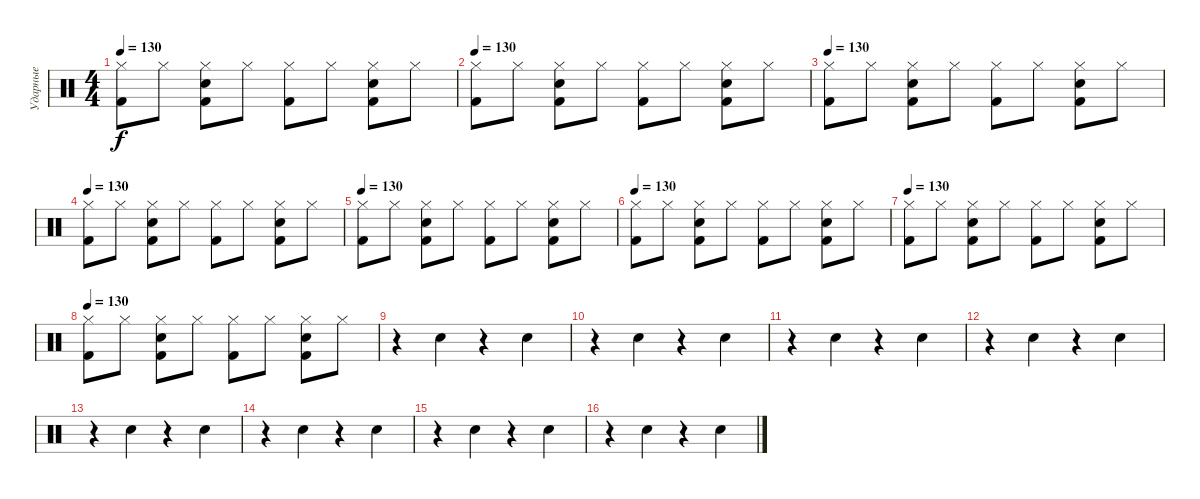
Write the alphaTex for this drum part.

\track ("Ударные" "Ударные") {instrument percussion}
\staff {score}
\articulation defaults
\ts (4 4)
\tempo 130
\clef neutral
\ks c
("Hi-Hat (closed)" "Kick (hit) 2").8{dy f} "Hi-Hat (closed)".8 ("Hi-Hat (closed)" "Snare (hit) 2" "Kick (hit) 2").8 "Hi-Hat (closed)".8 ("Hi-Hat (closed)" "Kick (hit) 2").8 "Hi-Hat (closed)".8 ("Hi-Hat (closed)" "Snare (hit) 2" "Kick (hit) 2").8 "Hi-Hat (closed)".8 |
\tempo 130
("Hi-Hat (closed)" "Kick (hit) 2").8 "Hi-Hat (closed)".8 ("Hi-Hat (closed)" "Snare (hit) 2" "Kick (hit) 2").8 "Hi-Hat (closed)".8 ("Hi-Hat (closed)" "Kick (hit) 2").8 "Hi-Hat (closed)".8 ("Hi-Hat (closed)" "Snare (hit) 2" "Kick (hit) 2").8 "Hi-Hat (closed)".8 |
\tempo 130
("Hi-Hat (closed)" "Kick (hit) 2").8 "Hi-Hat (closed)".8 ("Hi-Hat (closed)" "Snare (hit) 2" "Kick (hit) 2").8 "Hi-Hat (closed)".8 ("Hi-Hat (closed)" "Kick (hit) 2").8 "Hi-Hat (closed)".8 ("Hi-Hat (closed)" "Snare (hit) 2" "Kick (hit) 2").8 "Hi-Hat (closed)".8 |
\tempo 130
("Hi-Hat (closed)" "Kick (hit) 2").8 "Hi-Hat (closed)".8 ("Hi-Hat (closed)" "Snare (hit) 2" "Kick (hit) 2").8 "Hi-Hat (closed)".8 ("Hi-Hat (closed)" "Kick (hit) 2").8 "Hi-Hat (closed)".8 ("Hi-Hat (closed)" "Snare (hit) 2" "Kick (hit) 2").8 "Hi-Hat (closed)".8 |
\tempo 130
("Hi-Hat (closed)" "Kick (hit) 2").8 "Hi-Hat (closed)".8 ("Hi-Hat (closed)" "Snare (hit) 2" "Kick (hit) 2").8 "Hi-Hat (closed)".8 ("Hi-Hat (closed)" "Kick (hit) 2").8 "Hi-Hat (closed)".8 ("Hi-Hat (closed)" "Snare (hit) 2" "Kick (hit) 2").8 "Hi-Hat (closed)".8 |
\tempo 130
("Hi-Hat (closed)" "Kick (hit) 2").8 "Hi-Hat (closed)".8 ("Hi-Hat (closed)" "Snare (hit) 2" "Kick (hit) 2").8 "Hi-Hat (closed)".8 ("Hi-Hat (closed)" "Kick (hit) 2").8 "Hi-Hat (closed)".8 ("Hi-Hat (closed)" "Snare (hit) 2" "Kick (hit) 2").8 "Hi-Hat (closed)".8 |
\tempo 130
("Hi-Hat (closed)" "Kick (hit) 2").8 "Hi-Hat (closed)".8 ("Hi-Hat (closed)" "Snare (hit) 2" "Kick (hit) 2").8 "Hi-Hat (closed)".8 ("Hi-Hat (closed)" "Kick (hit) 2").8 "Hi-Hat (closed)".8 ("Hi-Hat (closed)" "Snare (hit) 2" "Kick (hit) 2").8 "Hi-Hat (closed)".8 |
\tempo 130
("Hi-Hat (closed)" "Kick (hit) 2").8 "Hi-Hat (closed)".8 ("Hi-Hat (closed)" "Snare (hit) 2" "Kick (hit) 2").8 "Hi-Hat (closed)".8 ("Hi-Hat (closed)" "Kick (hit) 2").8 "Hi-Hat (closed)".8 ("Hi-Hat (closed)" "Snare (hit) 2" "Kick (hit) 2").8 "Hi-Hat (closed)".8 |
r.4 "Snare (hit) 2".4 r.4 "Snare (hit) 2".4 |
r.4 "Snare (hit) 2".4 r.4 "Snare (hit) 2".4 |
r.4 "Snare (hit) 2".4 r.4 "Snare (hit) 2".4 |
r.4 "Snare (hit) 2".4 r.4 "Snare (hit) 2".4 |
r.4 "Snare (hit) 2".4 r.4 "Snare (hit) 2".4 |
r.4 "Snare (hit) 2".4 r.4 "Snare (hit) 2".4 |
r.4 "Snare (hit) 2".4 r.4 "Snare (hit) 2".4 |
r.4 "Snare (hit) 2".4 r.4 "Snare (hit) 2".4
